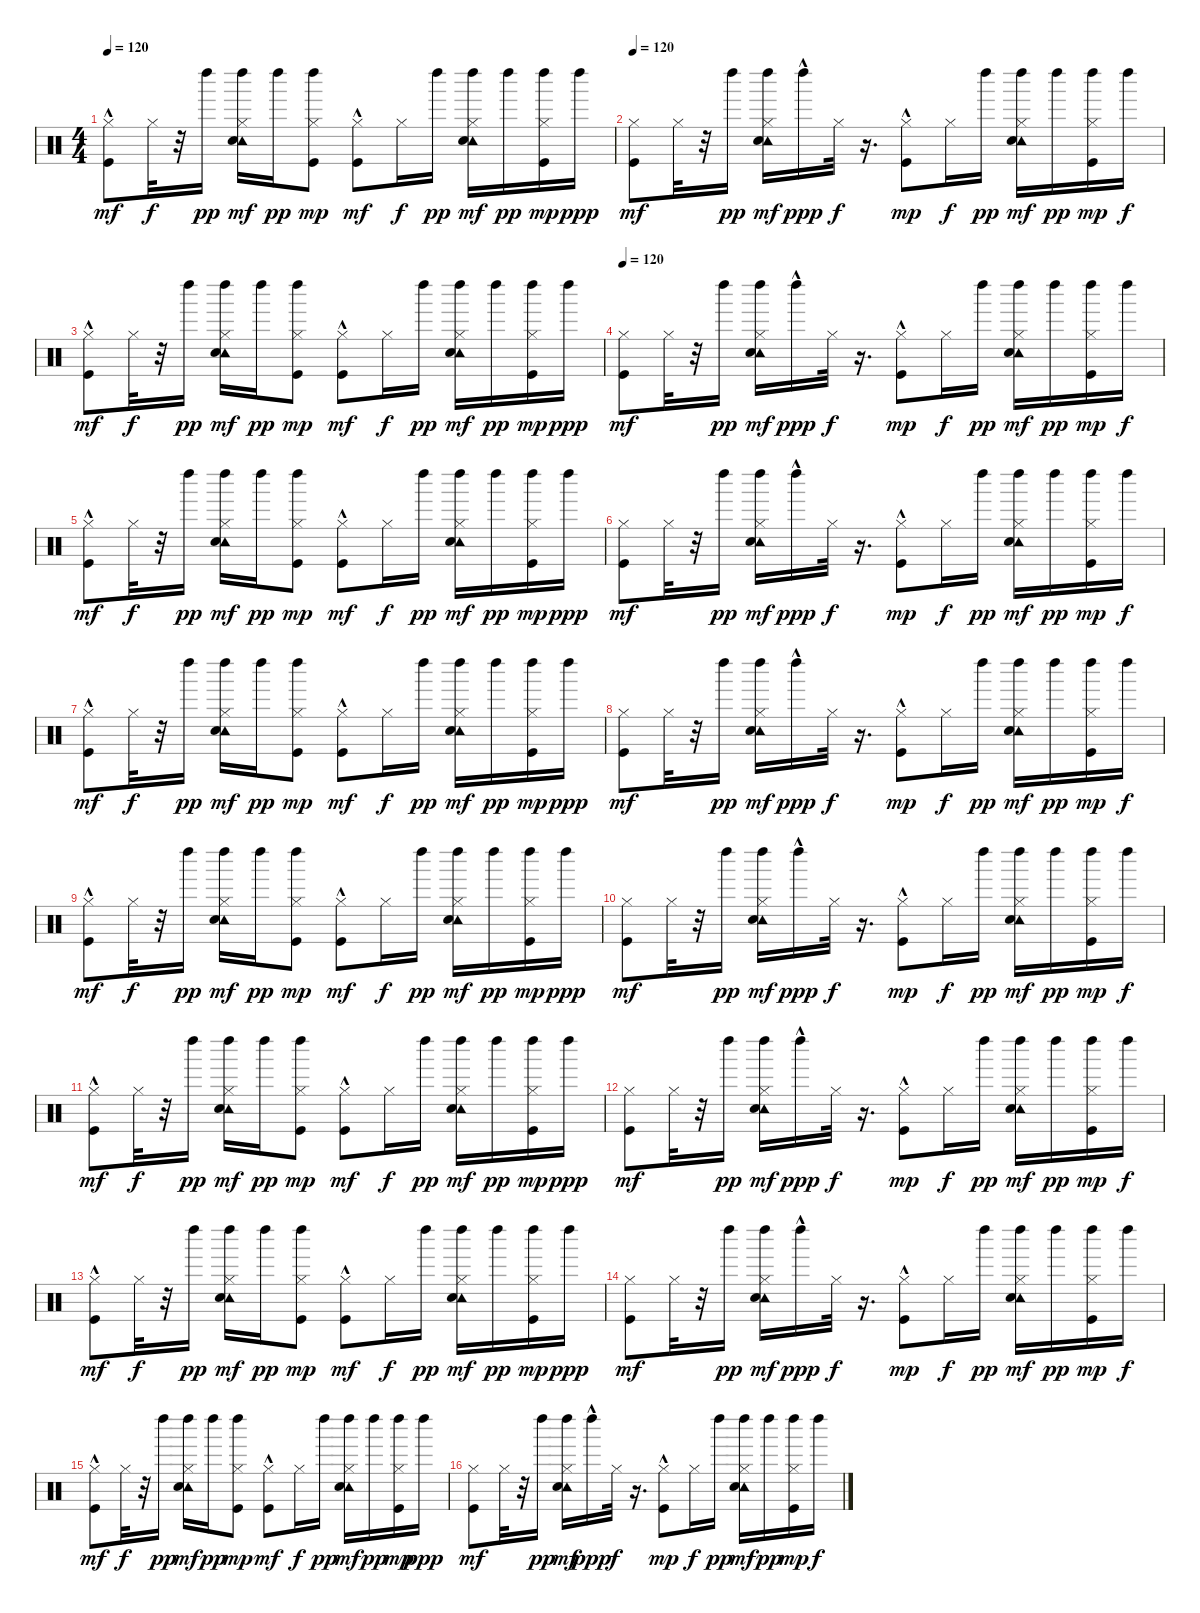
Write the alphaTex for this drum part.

\track "" {instrument percussion}
\staff {score}
\articulation defaults
\ts (4 4)
\tempo 120
\clef neutral
\ks c
("Kick (hit)"{hac} "Hi-Hat (closed)").8{dy mf} "Hi-Hat (closed)".32{dy f} r.32 "Left Maraca (hit)".16{dy pp} ("Left Maraca (hit)" "Tambourine (hit)" "Hi-Hat (closed)" "Electric Snare (hit)").16{dy mf} "Left Maraca (hit)".16{dy pp} ("Left Maraca (hit)" "Hi-Hat (closed)" "Kick (hit)").8{dy mp} ("Kick (hit)"{hac} "Hi-Hat (closed)").8{dy mf} "Hi-Hat (closed)".16{dy f} "Left Maraca (hit)".16{dy pp} ("Left Maraca (hit)" "Tambourine (hit)" "Electric Snare (hit)" "Hi-Hat (closed)").16{dy mf} "Left Maraca (hit)".16{dy pp} ("Left Maraca (hit)" "Kick (hit)" "Hi-Hat (closed)").16{dy mp} "Left Maraca (hit)".16{dy ppp} |
\tempo 120
("Kick (hit)" "Hi-Hat (closed)").8{dy mf} "Hi-Hat (closed)".32 r.32 "Left Maraca (hit)".16{dy pp} ("Left Maraca (hit)" "Tambourine (hit)" "Electric Snare (hit)" "Hi-Hat (closed)").16{dy mf} "Left Maraca (hit)"{hac}.16{dy ppp} "Hi-Hat (closed)".32{dy f} r.16{d} ("Hi-Hat (closed)" "Kick (hit)"{hac}).8{dy mp} "Hi-Hat (closed)".16{dy f} "Left Maraca (hit)".16{dy pp} ("Left Maraca (hit)" "Tambourine (hit)" "Electric Snare (hit)" "Hi-Hat (closed)").16{dy mf} "Left Maraca (hit)".16{dy pp} ("Left Maraca (hit)" "Kick (hit)" "Hi-Hat (closed)").16{dy mp} "Left Maraca (hit)".16{dy f} |
("Kick (hit)"{hac} "Hi-Hat (closed)").8{dy mf} "Hi-Hat (closed)".32{dy f} r.32 "Left Maraca (hit)".16{dy pp} ("Left Maraca (hit)" "Tambourine (hit)" "Hi-Hat (closed)" "Electric Snare (hit)").16{dy mf} "Left Maraca (hit)".16{dy pp} ("Left Maraca (hit)" "Hi-Hat (closed)" "Kick (hit)").8{dy mp} ("Kick (hit)"{hac} "Hi-Hat (closed)").8{dy mf} "Hi-Hat (closed)".16{dy f} "Left Maraca (hit)".16{dy pp} ("Left Maraca (hit)" "Tambourine (hit)" "Electric Snare (hit)" "Hi-Hat (closed)").16{dy mf} "Left Maraca (hit)".16{dy pp} ("Left Maraca (hit)" "Kick (hit)" "Hi-Hat (closed)").16{dy mp} "Left Maraca (hit)".16{dy ppp} |
\tempo 120
("Kick (hit)" "Hi-Hat (closed)").8{dy mf} "Hi-Hat (closed)".32 r.32 "Left Maraca (hit)".16{dy pp} ("Left Maraca (hit)" "Tambourine (hit)" "Electric Snare (hit)" "Hi-Hat (closed)").16{dy mf} "Left Maraca (hit)"{hac}.16{dy ppp} "Hi-Hat (closed)".32{dy f} r.16{d} ("Hi-Hat (closed)" "Kick (hit)"{hac}).8{dy mp} "Hi-Hat (closed)".16{dy f} "Left Maraca (hit)".16{dy pp} ("Left Maraca (hit)" "Tambourine (hit)" "Electric Snare (hit)" "Hi-Hat (closed)").16{dy mf} "Left Maraca (hit)".16{dy pp} ("Left Maraca (hit)" "Kick (hit)" "Hi-Hat (closed)").16{dy mp} "Left Maraca (hit)".16{dy f} |
("Kick (hit)"{hac} "Hi-Hat (closed)").8{dy mf} "Hi-Hat (closed)".32{dy f} r.32 "Left Maraca (hit)".16{dy pp} ("Left Maraca (hit)" "Tambourine (hit)" "Hi-Hat (closed)" "Electric Snare (hit)").16{dy mf} "Left Maraca (hit)".16{dy pp} ("Left Maraca (hit)" "Hi-Hat (closed)" "Kick (hit)").8{dy mp} ("Kick (hit)"{hac} "Hi-Hat (closed)").8{dy mf} "Hi-Hat (closed)".16{dy f} "Left Maraca (hit)".16{dy pp} ("Left Maraca (hit)" "Tambourine (hit)" "Electric Snare (hit)" "Hi-Hat (closed)").16{dy mf} "Left Maraca (hit)".16{dy pp} ("Left Maraca (hit)" "Kick (hit)" "Hi-Hat (closed)").16{dy mp} "Left Maraca (hit)".16{dy ppp} |
("Kick (hit)" "Hi-Hat (closed)").8{dy mf} "Hi-Hat (closed)".32 r.32 "Left Maraca (hit)".16{dy pp} ("Left Maraca (hit)" "Tambourine (hit)" "Electric Snare (hit)" "Hi-Hat (closed)").16{dy mf} "Left Maraca (hit)"{hac}.16{dy ppp} "Hi-Hat (closed)".32{dy f} r.16{d} ("Hi-Hat (closed)" "Kick (hit)"{hac}).8{dy mp} "Hi-Hat (closed)".16{dy f} "Left Maraca (hit)".16{dy pp} ("Left Maraca (hit)" "Tambourine (hit)" "Electric Snare (hit)" "Hi-Hat (closed)").16{dy mf} "Left Maraca (hit)".16{dy pp} ("Left Maraca (hit)" "Kick (hit)" "Hi-Hat (closed)").16{dy mp} "Left Maraca (hit)".16{dy f} |
("Kick (hit)"{hac} "Hi-Hat (closed)").8{dy mf} "Hi-Hat (closed)".32{dy f} r.32 "Left Maraca (hit)".16{dy pp} ("Left Maraca (hit)" "Tambourine (hit)" "Hi-Hat (closed)" "Electric Snare (hit)").16{dy mf} "Left Maraca (hit)".16{dy pp} ("Left Maraca (hit)" "Hi-Hat (closed)" "Kick (hit)").8{dy mp} ("Kick (hit)"{hac} "Hi-Hat (closed)").8{dy mf} "Hi-Hat (closed)".16{dy f} "Left Maraca (hit)".16{dy pp} ("Left Maraca (hit)" "Tambourine (hit)" "Electric Snare (hit)" "Hi-Hat (closed)").16{dy mf} "Left Maraca (hit)".16{dy pp} ("Left Maraca (hit)" "Kick (hit)" "Hi-Hat (closed)").16{dy mp} "Left Maraca (hit)".16{dy ppp} |
("Kick (hit)" "Hi-Hat (closed)").8{dy mf} "Hi-Hat (closed)".32 r.32 "Left Maraca (hit)".16{dy pp} ("Left Maraca (hit)" "Tambourine (hit)" "Electric Snare (hit)" "Hi-Hat (closed)").16{dy mf} "Left Maraca (hit)"{hac}.16{dy ppp} "Hi-Hat (closed)".32{dy f} r.16{d} ("Hi-Hat (closed)" "Kick (hit)"{hac}).8{dy mp} "Hi-Hat (closed)".16{dy f} "Left Maraca (hit)".16{dy pp} ("Left Maraca (hit)" "Tambourine (hit)" "Electric Snare (hit)" "Hi-Hat (closed)").16{dy mf} "Left Maraca (hit)".16{dy pp} ("Left Maraca (hit)" "Kick (hit)" "Hi-Hat (closed)").16{dy mp} "Left Maraca (hit)".16{dy f} |
("Kick (hit)"{hac} "Hi-Hat (closed)").8{dy mf} "Hi-Hat (closed)".32{dy f} r.32 "Left Maraca (hit)".16{dy pp} ("Left Maraca (hit)" "Tambourine (hit)" "Hi-Hat (closed)" "Electric Snare (hit)").16{dy mf} "Left Maraca (hit)".16{dy pp} ("Left Maraca (hit)" "Hi-Hat (closed)" "Kick (hit)").8{dy mp} ("Kick (hit)"{hac} "Hi-Hat (closed)").8{dy mf} "Hi-Hat (closed)".16{dy f} "Left Maraca (hit)".16{dy pp} ("Left Maraca (hit)" "Tambourine (hit)" "Electric Snare (hit)" "Hi-Hat (closed)").16{dy mf} "Left Maraca (hit)".16{dy pp} ("Left Maraca (hit)" "Kick (hit)" "Hi-Hat (closed)").16{dy mp} "Left Maraca (hit)".16{dy ppp} |
("Kick (hit)" "Hi-Hat (closed)").8{dy mf} "Hi-Hat (closed)".32 r.32 "Left Maraca (hit)".16{dy pp} ("Left Maraca (hit)" "Tambourine (hit)" "Electric Snare (hit)" "Hi-Hat (closed)").16{dy mf} "Left Maraca (hit)"{hac}.16{dy ppp} "Hi-Hat (closed)".32{dy f} r.16{d} ("Hi-Hat (closed)" "Kick (hit)"{hac}).8{dy mp} "Hi-Hat (closed)".16{dy f} "Left Maraca (hit)".16{dy pp} ("Left Maraca (hit)" "Tambourine (hit)" "Electric Snare (hit)" "Hi-Hat (closed)").16{dy mf} "Left Maraca (hit)".16{dy pp} ("Left Maraca (hit)" "Kick (hit)" "Hi-Hat (closed)").16{dy mp} "Left Maraca (hit)".16{dy f} |
("Kick (hit)"{hac} "Hi-Hat (closed)").8{dy mf} "Hi-Hat (closed)".32{dy f} r.32 "Left Maraca (hit)".16{dy pp} ("Left Maraca (hit)" "Tambourine (hit)" "Hi-Hat (closed)" "Electric Snare (hit)").16{dy mf} "Left Maraca (hit)".16{dy pp} ("Left Maraca (hit)" "Hi-Hat (closed)" "Kick (hit)").8{dy mp} ("Kick (hit)"{hac} "Hi-Hat (closed)").8{dy mf} "Hi-Hat (closed)".16{dy f} "Left Maraca (hit)".16{dy pp} ("Left Maraca (hit)" "Tambourine (hit)" "Electric Snare (hit)" "Hi-Hat (closed)").16{dy mf} "Left Maraca (hit)".16{dy pp} ("Left Maraca (hit)" "Kick (hit)" "Hi-Hat (closed)").16{dy mp} "Left Maraca (hit)".16{dy ppp} |
("Kick (hit)" "Hi-Hat (closed)").8{dy mf} "Hi-Hat (closed)".32 r.32 "Left Maraca (hit)".16{dy pp} ("Left Maraca (hit)" "Tambourine (hit)" "Electric Snare (hit)" "Hi-Hat (closed)").16{dy mf} "Left Maraca (hit)"{hac}.16{dy ppp} "Hi-Hat (closed)".32{dy f} r.16{d} ("Hi-Hat (closed)" "Kick (hit)"{hac}).8{dy mp} "Hi-Hat (closed)".16{dy f} "Left Maraca (hit)".16{dy pp} ("Left Maraca (hit)" "Tambourine (hit)" "Electric Snare (hit)" "Hi-Hat (closed)").16{dy mf} "Left Maraca (hit)".16{dy pp} ("Left Maraca (hit)" "Kick (hit)" "Hi-Hat (closed)").16{dy mp} "Left Maraca (hit)".16{dy f} |
("Kick (hit)"{hac} "Hi-Hat (closed)").8{dy mf} "Hi-Hat (closed)".32{dy f} r.32 "Left Maraca (hit)".16{dy pp} ("Left Maraca (hit)" "Tambourine (hit)" "Hi-Hat (closed)" "Electric Snare (hit)").16{dy mf} "Left Maraca (hit)".16{dy pp} ("Left Maraca (hit)" "Hi-Hat (closed)" "Kick (hit)").8{dy mp} ("Kick (hit)"{hac} "Hi-Hat (closed)").8{dy mf} "Hi-Hat (closed)".16{dy f} "Left Maraca (hit)".16{dy pp} ("Left Maraca (hit)" "Tambourine (hit)" "Electric Snare (hit)" "Hi-Hat (closed)").16{dy mf} "Left Maraca (hit)".16{dy pp} ("Left Maraca (hit)" "Kick (hit)" "Hi-Hat (closed)").16{dy mp} "Left Maraca (hit)".16{dy ppp} |
("Kick (hit)" "Hi-Hat (closed)").8{dy mf} "Hi-Hat (closed)".32 r.32 "Left Maraca (hit)".16{dy pp} ("Left Maraca (hit)" "Tambourine (hit)" "Electric Snare (hit)" "Hi-Hat (closed)").16{dy mf} "Left Maraca (hit)"{hac}.16{dy ppp} "Hi-Hat (closed)".32{dy f} r.16{d} ("Hi-Hat (closed)" "Kick (hit)"{hac}).8{dy mp} "Hi-Hat (closed)".16{dy f} "Left Maraca (hit)".16{dy pp} ("Left Maraca (hit)" "Tambourine (hit)" "Electric Snare (hit)" "Hi-Hat (closed)").16{dy mf} "Left Maraca (hit)".16{dy pp} ("Left Maraca (hit)" "Kick (hit)" "Hi-Hat (closed)").16{dy mp} "Left Maraca (hit)".16{dy f} |
("Kick (hit)"{hac} "Hi-Hat (closed)").8{dy mf} "Hi-Hat (closed)".32{dy f} r.32 "Left Maraca (hit)".16{dy pp} ("Left Maraca (hit)" "Tambourine (hit)" "Hi-Hat (closed)" "Electric Snare (hit)").16{dy mf} "Left Maraca (hit)".16{dy pp} ("Left Maraca (hit)" "Hi-Hat (closed)" "Kick (hit)").8{dy mp} ("Kick (hit)"{hac} "Hi-Hat (closed)").8{dy mf} "Hi-Hat (closed)".16{dy f} "Left Maraca (hit)".16{dy pp} ("Left Maraca (hit)" "Tambourine (hit)" "Electric Snare (hit)" "Hi-Hat (closed)").16{dy mf} "Left Maraca (hit)".16{dy pp} ("Left Maraca (hit)" "Kick (hit)" "Hi-Hat (closed)").16{dy mp} "Left Maraca (hit)".16{dy ppp} |
("Kick (hit)" "Hi-Hat (closed)").8{dy mf} "Hi-Hat (closed)".32 r.32 "Left Maraca (hit)".16{dy pp} ("Left Maraca (hit)" "Tambourine (hit)" "Electric Snare (hit)" "Hi-Hat (closed)").16{dy mf} "Left Maraca (hit)"{hac}.16{dy ppp} "Hi-Hat (closed)".32{dy f} r.16{d} ("Hi-Hat (closed)" "Kick (hit)"{hac}).8{dy mp} "Hi-Hat (closed)".16{dy f} "Left Maraca (hit)".16{dy pp} ("Left Maraca (hit)" "Tambourine (hit)" "Electric Snare (hit)" "Hi-Hat (closed)").16{dy mf} "Left Maraca (hit)".16{dy pp} ("Left Maraca (hit)" "Kick (hit)" "Hi-Hat (closed)").16{dy mp} "Left Maraca (hit)".16{dy f}
